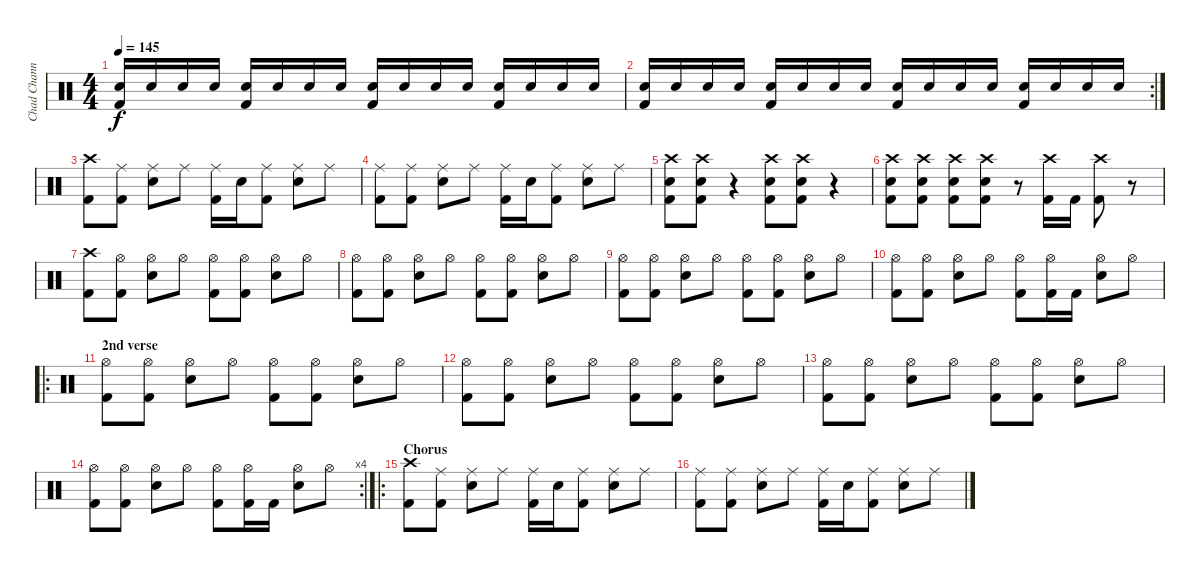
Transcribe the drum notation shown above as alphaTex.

\track ("Chad Channing" "Chad Chann") {instrument percussion}
\staff {score}
\articulation defaults
\ts (4 4)
\tempo 145
\clef neutral
\ks c
("Electric Snare (hit)" "Kick (hit) 2").16{dy f} "Electric Snare (hit)".16 "Electric Snare (hit)".16 "Electric Snare (hit)".16 ("Electric Snare (hit)" "Kick (hit) 2").16 "Electric Snare (hit)".16 "Electric Snare (hit)".16 "Electric Snare (hit)".16 ("Electric Snare (hit)" "Kick (hit) 2").16 "Electric Snare (hit)".16 "Electric Snare (hit)".16 "Electric Snare (hit)".16 ("Electric Snare (hit)" "Kick (hit) 2").16 "Electric Snare (hit)".16 "Electric Snare (hit)".16 "Electric Snare (hit)".16 |
\rc 2
("Electric Snare (hit)" "Kick (hit) 2").16 "Electric Snare (hit)".16 "Electric Snare (hit)".16 "Electric Snare (hit)".16 ("Electric Snare (hit)" "Kick (hit) 2").16 "Electric Snare (hit)".16 "Electric Snare (hit)".16 "Electric Snare (hit)".16 ("Electric Snare (hit)" "Kick (hit) 2").16 "Electric Snare (hit)".16 "Electric Snare (hit)".16 "Electric Snare (hit)".16 ("Electric Snare (hit)" "Kick (hit) 2").16 "Electric Snare (hit)".16 "Electric Snare (hit)".16 "Electric Snare (hit)".16 |
("Crash high (hit)" "Kick (hit) 2").8 ("Ride (middle)" "Kick (hit) 2").8 ("Ride (middle)" "Electric Snare (hit)").8 "Ride (middle)".8 ("Ride (middle)" "Kick (hit) 2").16 "Electric Snare (hit)".16 ("Ride (middle)" "Kick (hit) 2").8 ("Ride (middle)" "Electric Snare (hit)").8 "Ride (middle)".8 |
("Ride (middle)" "Kick (hit) 2").8 ("Ride (middle)" "Kick (hit) 2").8 ("Ride (middle)" "Electric Snare (hit)").8 "Ride (middle)".8 ("Ride (middle)" "Kick (hit) 2").16 "Electric Snare (hit)".16 ("Ride (middle)" "Kick (hit) 2").8 ("Ride (middle)" "Electric Snare (hit)").8 "Ride (middle)".8 |
("Crash high (hit)" "Electric Snare (hit)" "Kick (hit) 2").8 ("Crash high (hit)" "Electric Snare (hit)" "Kick (hit) 2").8 r.4 ("Crash high (hit)" "Electric Snare (hit)" "Kick (hit) 2").8 ("Crash high (hit)" "Electric Snare (hit)" "Kick (hit) 2").8 r.4 |
("Crash high (hit)" "Electric Snare (hit)" "Kick (hit) 2").8 ("Crash high (hit)" "Electric Snare (hit)" "Kick (hit) 2").8 ("Crash high (hit)" "Electric Snare (hit)" "Kick (hit) 2").8 ("Crash high (hit)" "Electric Snare (hit)" "Kick (hit) 2").8 r.8 ("Crash high (hit)" "Kick (hit) 2").16 "Kick (hit) 2".16 ("Crash high (hit)" "Kick (hit) 2").8 r.8 |
("Crash high (hit)" "Kick (hit) 2").8 ("Hi-Hat (open)" "Kick (hit) 2").8 ("Hi-Hat (open)" "Electric Snare (hit)").8 "Hi-Hat (open)".8 ("Hi-Hat (open)" "Kick (hit) 2").8 ("Hi-Hat (open)" "Kick (hit) 2").8 ("Hi-Hat (open)" "Electric Snare (hit)").8 "Hi-Hat (open)".8 |
("Hi-Hat (open)" "Kick (hit) 2").8 ("Hi-Hat (open)" "Kick (hit) 2").8 ("Hi-Hat (open)" "Electric Snare (hit)").8 "Hi-Hat (open)".8 ("Hi-Hat (open)" "Kick (hit) 2").8 ("Hi-Hat (open)" "Kick (hit) 2").8 ("Hi-Hat (open)" "Electric Snare (hit)").8 "Hi-Hat (open)".8 |
("Hi-Hat (open)" "Kick (hit) 2").8 ("Hi-Hat (open)" "Kick (hit) 2").8 ("Hi-Hat (open)" "Electric Snare (hit)").8 "Hi-Hat (open)".8 ("Hi-Hat (open)" "Kick (hit) 2").8 ("Hi-Hat (open)" "Kick (hit) 2").8 ("Hi-Hat (open)" "Electric Snare (hit)").8 "Hi-Hat (open)".8 |
("Hi-Hat (open)" "Kick (hit) 2").8 ("Hi-Hat (open)" "Kick (hit) 2").8 ("Hi-Hat (open)" "Electric Snare (hit)").8 "Hi-Hat (open)".8 ("Hi-Hat (open)" "Kick (hit) 2").8 ("Hi-Hat (open)" "Kick (hit) 2").16 "Kick (hit) 2".16 ("Hi-Hat (open)" "Electric Snare (hit)").8 "Hi-Hat (open)".8 |
\ro
\section ("" "2nd verse")
("Hi-Hat (open)" "Kick (hit) 2").8 ("Hi-Hat (open)" "Kick (hit) 2").8 ("Hi-Hat (open)" "Electric Snare (hit)").8 "Hi-Hat (open)".8 ("Hi-Hat (open)" "Kick (hit) 2").8 ("Hi-Hat (open)" "Kick (hit) 2").8 ("Hi-Hat (open)" "Electric Snare (hit)").8 "Hi-Hat (open)".8 |
("Hi-Hat (open)" "Kick (hit) 2").8 ("Hi-Hat (open)" "Kick (hit) 2").8 ("Hi-Hat (open)" "Electric Snare (hit)").8 "Hi-Hat (open)".8 ("Hi-Hat (open)" "Kick (hit) 2").8 ("Hi-Hat (open)" "Kick (hit) 2").8 ("Hi-Hat (open)" "Electric Snare (hit)").8 "Hi-Hat (open)".8 |
("Hi-Hat (open)" "Kick (hit) 2").8 ("Hi-Hat (open)" "Kick (hit) 2").8 ("Hi-Hat (open)" "Electric Snare (hit)").8 "Hi-Hat (open)".8 ("Hi-Hat (open)" "Kick (hit) 2").8 ("Hi-Hat (open)" "Kick (hit) 2").8 ("Hi-Hat (open)" "Electric Snare (hit)").8 "Hi-Hat (open)".8 |
\rc 4
("Hi-Hat (open)" "Kick (hit) 2").8 ("Hi-Hat (open)" "Kick (hit) 2").8 ("Hi-Hat (open)" "Electric Snare (hit)").8 "Hi-Hat (open)".8 ("Hi-Hat (open)" "Kick (hit) 2").8 ("Hi-Hat (open)" "Kick (hit) 2").16 "Kick (hit) 2".16 ("Hi-Hat (open)" "Electric Snare (hit)").8 "Hi-Hat (open)".8 |
\ro
\section ("" "Chorus")
("Crash high (hit)" "Kick (hit) 2").8 ("Ride (middle)" "Kick (hit) 2").8 ("Ride (middle)" "Electric Snare (hit)").8 "Ride (middle)".8 ("Ride (middle)" "Kick (hit) 2").16 "Electric Snare (hit)".16 ("Ride (middle)" "Kick (hit) 2").8 ("Ride (middle)" "Electric Snare (hit)").8 "Ride (middle)".8 |
("Ride (middle)" "Kick (hit) 2").8 ("Ride (middle)" "Kick (hit) 2").8 ("Ride (middle)" "Electric Snare (hit)").8 "Ride (middle)".8 ("Ride (middle)" "Kick (hit) 2").16 "Electric Snare (hit)".16 ("Ride (middle)" "Kick (hit) 2").8 ("Ride (middle)" "Electric Snare (hit)").8 "Ride (middle)".8
